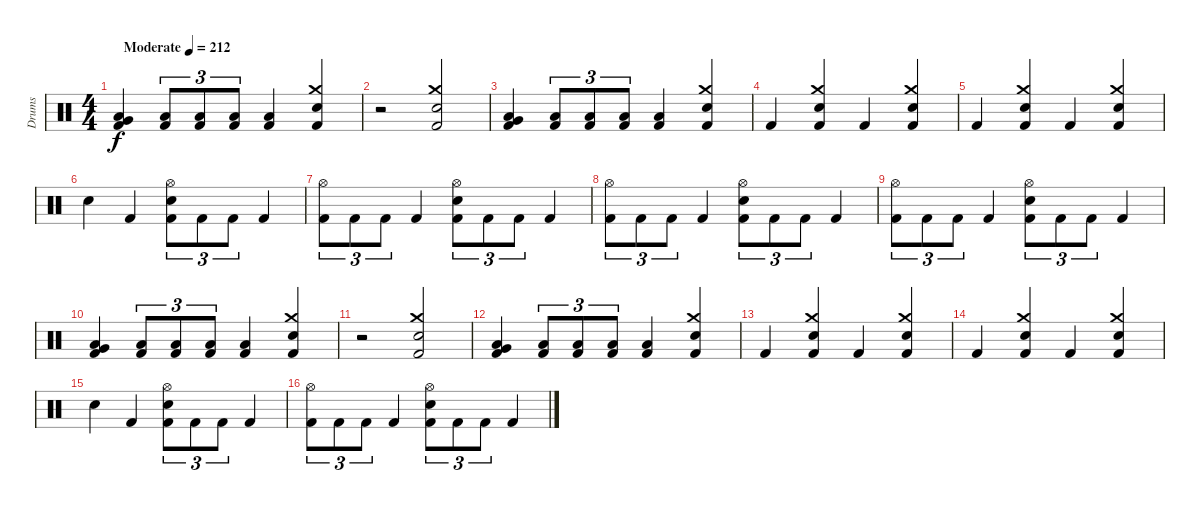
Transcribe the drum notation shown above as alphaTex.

\track ("Drums" "Drums") {instrument percussion}
\staff {score}
\articulation defaults
\ts (4 4)
\tempo (212 "Moderate")
\clef neutral
\ks c
("Very Low Tom (hit)" "Low Floor Tom (hit)" "Kick (hit) 2").4{dy f} ("Low Floor Tom (hit)" "Kick (hit) 2").8{tu (3 2)} ("Low Floor Tom (hit)" "Kick (hit) 2").8{tu (3 2)} ("Low Floor Tom (hit)" "Kick (hit) 2").8{tu (3 2)} ("Low Floor Tom (hit)" "Kick (hit) 2").4 ("Crash medium (hit)" "Electric Snare (hit)" "Kick (hit) 2").4 |
r.2 ("Crash medium (hit)" "Electric Snare (hit)" "Kick (hit) 2").2 |
("Very Low Tom (hit)" "Low Floor Tom (hit)" "Kick (hit) 2").4 ("Low Floor Tom (hit)" "Kick (hit) 2").8{tu (3 2)} ("Low Floor Tom (hit)" "Kick (hit) 2").8{tu (3 2)} ("Low Floor Tom (hit)" "Kick (hit) 2").8{tu (3 2)} ("Low Floor Tom (hit)" "Kick (hit) 2").4 ("Crash medium (hit)" "Electric Snare (hit)" "Kick (hit) 2").4 |
"Kick (hit) 2".4 ("Crash medium (hit)" "Electric Snare (hit)" "Kick (hit) 2").4 "Kick (hit) 2".4 ("Crash medium (hit)" "Electric Snare (hit)" "Kick (hit) 2").4 |
"Kick (hit) 2".4 ("Crash medium (hit)" "Electric Snare (hit)" "Kick (hit) 2").4 "Kick (hit) 2".4 ("Crash medium (hit)" "Electric Snare (hit)" "Kick (hit) 2").4 |
"Electric Snare (hit)".4 "Kick (hit) 2".4 ("Hi-Hat (open)" "Electric Snare (hit)" "Kick (hit) 2").8{tu (3 2)} "Kick (hit) 2".8{tu (3 2)} "Kick (hit) 2".8{tu (3 2)} "Kick (hit) 2".4 |
("Hi-Hat (open)" "Kick (hit) 2").8{tu (3 2)} "Kick (hit) 2".8{tu (3 2)} "Kick (hit) 2".8{tu (3 2)} "Kick (hit) 2".4 ("Hi-Hat (open)" "Electric Snare (hit)" "Kick (hit) 2").8{tu (3 2)} "Kick (hit) 2".8{tu (3 2)} "Kick (hit) 2".8{tu (3 2)} "Kick (hit) 2".4 |
("Hi-Hat (open)" "Kick (hit) 2").8{tu (3 2)} "Kick (hit) 2".8{tu (3 2)} "Kick (hit) 2".8{tu (3 2)} "Kick (hit) 2".4 ("Hi-Hat (open)" "Electric Snare (hit)" "Kick (hit) 2").8{tu (3 2)} "Kick (hit) 2".8{tu (3 2)} "Kick (hit) 2".8{tu (3 2)} "Kick (hit) 2".4 |
("Hi-Hat (open)" "Kick (hit) 2").8{tu (3 2)} "Kick (hit) 2".8{tu (3 2)} "Kick (hit) 2".8{tu (3 2)} "Kick (hit) 2".4 ("Hi-Hat (open)" "Electric Snare (hit)" "Kick (hit) 2").8{tu (3 2)} "Kick (hit) 2".8{tu (3 2)} "Kick (hit) 2".8{tu (3 2)} "Kick (hit) 2".4 |
("Very Low Tom (hit)" "Low Floor Tom (hit)" "Kick (hit) 2").4 ("Low Floor Tom (hit)" "Kick (hit) 2").8{tu (3 2)} ("Low Floor Tom (hit)" "Kick (hit) 2").8{tu (3 2)} ("Low Floor Tom (hit)" "Kick (hit) 2").8{tu (3 2)} ("Low Floor Tom (hit)" "Kick (hit) 2").4 ("Crash medium (hit)" "Electric Snare (hit)" "Kick (hit) 2").4 |
r.2 ("Crash medium (hit)" "Electric Snare (hit)" "Kick (hit) 2").2 |
("Very Low Tom (hit)" "Low Floor Tom (hit)" "Kick (hit) 2").4 ("Low Floor Tom (hit)" "Kick (hit) 2").8{tu (3 2)} ("Low Floor Tom (hit)" "Kick (hit) 2").8{tu (3 2)} ("Low Floor Tom (hit)" "Kick (hit) 2").8{tu (3 2)} ("Low Floor Tom (hit)" "Kick (hit) 2").4 ("Crash medium (hit)" "Electric Snare (hit)" "Kick (hit) 2").4 |
"Kick (hit) 2".4 ("Crash medium (hit)" "Electric Snare (hit)" "Kick (hit) 2").4 "Kick (hit) 2".4 ("Crash medium (hit)" "Electric Snare (hit)" "Kick (hit) 2").4 |
"Kick (hit) 2".4 ("Crash medium (hit)" "Electric Snare (hit)" "Kick (hit) 2").4 "Kick (hit) 2".4 ("Crash medium (hit)" "Electric Snare (hit)" "Kick (hit) 2").4 |
"Electric Snare (hit)".4 "Kick (hit) 2".4 ("Hi-Hat (open)" "Electric Snare (hit)" "Kick (hit) 2").8{tu (3 2)} "Kick (hit) 2".8{tu (3 2)} "Kick (hit) 2".8{tu (3 2)} "Kick (hit) 2".4 |
("Hi-Hat (open)" "Kick (hit) 2").8{tu (3 2)} "Kick (hit) 2".8{tu (3 2)} "Kick (hit) 2".8{tu (3 2)} "Kick (hit) 2".4 ("Hi-Hat (open)" "Electric Snare (hit)" "Kick (hit) 2").8{tu (3 2)} "Kick (hit) 2".8{tu (3 2)} "Kick (hit) 2".8{tu (3 2)} "Kick (hit) 2".4
